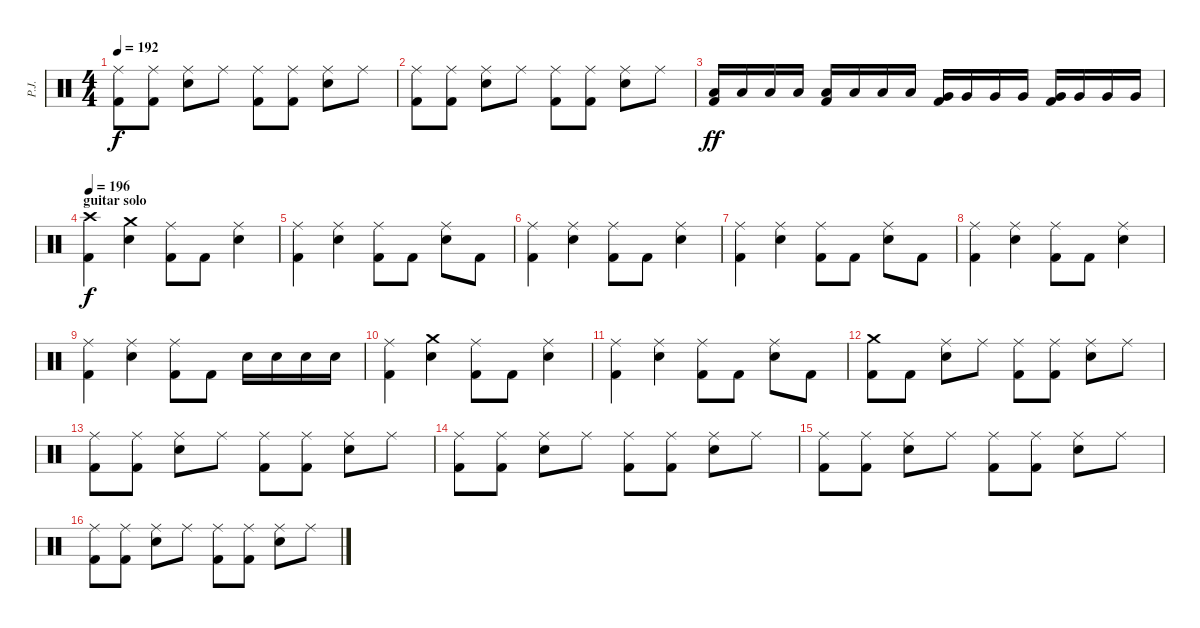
\track ("P.J." "P.J.") {instrument percussion}
\staff {score}
\articulation defaults
\ts (4 4)
\tempo 192
\clef neutral
\ks c
("Ride (middle)" "Kick (hit) 2").8{dy f} ("Ride (middle)" "Kick (hit) 2").8 ("Ride (middle)" "Snare (hit) 2").8 "Ride (middle)".8 ("Ride (middle)" "Kick (hit) 2").8 ("Ride (middle)" "Kick (hit) 2").8 ("Ride (middle)" "Snare (hit) 2").8 "Ride (middle)".8 |
("Ride (middle)" "Kick (hit) 2").8 ("Ride (middle)" "Kick (hit) 2").8 ("Ride (middle)" "Snare (hit) 2").8 "Ride (middle)".8 ("Ride (middle)" "Kick (hit) 2").8 ("Ride (middle)" "Kick (hit) 2").8 ("Ride (middle)" "Snare (hit) 2").8 "Ride (middle)".8 |
("Low Tom (hit)" "Kick (hit) 2").16{dy ff} "Low Tom (hit)".16 "Low Tom (hit)".16 "Low Tom (hit)".16 ("Low Tom (hit)" "Kick (hit) 2").16 "Low Tom (hit)".16 "Low Tom (hit)".16 "Low Tom (hit)".16 ("Very Low Tom (hit)" "Kick (hit) 2").16 "Very Low Tom (hit)".16 "Very Low Tom (hit)".16 "Very Low Tom (hit)".16 ("Very Low Tom (hit)" "Kick (hit) 2").16 "Very Low Tom (hit)".16 "Very Low Tom (hit)".16 "Very Low Tom (hit)".16 |
\section ("" "guitar solo")
\tempo 196
("Crash high (hit)" "Kick (hit) 2").4{dy f} ("Crash medium (hit)" "Snare (hit) 2").4 ("Ride (middle)" "Kick (hit) 2").8 "Kick (hit) 2".8 ("Ride (middle)" "Snare (hit) 2").4 |
("Ride (middle)" "Kick (hit) 2").4 ("Ride (middle)" "Snare (hit) 2").4 ("Ride (middle)" "Kick (hit) 2").8 "Kick (hit) 2".8 ("Ride (middle)" "Snare (hit) 2").8 "Kick (hit) 2".8 |
("Ride (middle)" "Kick (hit) 2").4 ("Ride (middle)" "Snare (hit) 2").4 ("Ride (middle)" "Kick (hit) 2").8 "Kick (hit) 2".8 ("Ride (middle)" "Snare (hit) 2").4 |
("Ride (middle)" "Kick (hit) 2").4 ("Ride (middle)" "Snare (hit) 2").4 ("Ride (middle)" "Kick (hit) 2").8 "Kick (hit) 2".8 ("Ride (middle)" "Snare (hit) 2").8 "Kick (hit) 2".8 |
("Ride (middle)" "Kick (hit) 2").4 ("Ride (middle)" "Snare (hit) 2").4 ("Ride (middle)" "Kick (hit) 2").8 "Kick (hit) 2".8 ("Ride (middle)" "Snare (hit) 2").4 |
("Ride (middle)" "Kick (hit) 2").4 ("Ride (middle)" "Snare (hit) 2").4 ("Ride (middle)" "Kick (hit) 2").8 "Kick (hit) 2".8 "Snare (hit) 2".16 "Snare (hit) 2".16 "Snare (hit) 2".16 "Snare (hit) 2".16 |
("Ride (middle)" "Kick (hit) 2").4 ("Crash medium (hit)" "Snare (hit) 2").4 ("Ride (middle)" "Kick (hit) 2").8 "Kick (hit) 2".8 ("Ride (middle)" "Snare (hit) 2").4 |
("Ride (middle)" "Kick (hit) 2").4 ("Ride (middle)" "Snare (hit) 2").4 ("Ride (middle)" "Kick (hit) 2").8 "Kick (hit) 2".8 ("Ride (middle)" "Snare (hit) 2").8 "Kick (hit) 2".8 |
("Crash medium (hit)" "Kick (hit) 2").8 "Kick (hit) 2".8 ("Ride (middle)" "Snare (hit) 2").8 "Ride (middle)".8 ("Ride (middle)" "Kick (hit) 2").8 ("Ride (middle)" "Kick (hit) 2").8 ("Ride (middle)" "Snare (hit) 2").8 "Ride (middle)".8 |
("Ride (middle)" "Kick (hit) 2").8 ("Ride (middle)" "Kick (hit) 2").8 ("Ride (middle)" "Snare (hit) 2").8 "Ride (middle)".8 ("Ride (middle)" "Kick (hit) 2").8 ("Ride (middle)" "Kick (hit) 2").8 ("Ride (middle)" "Snare (hit) 2").8 "Ride (middle)".8 |
("Ride (middle)" "Kick (hit) 2").8 ("Ride (middle)" "Kick (hit) 2").8 ("Ride (middle)" "Snare (hit) 2").8 "Ride (middle)".8 ("Ride (middle)" "Kick (hit) 2").8 ("Ride (middle)" "Kick (hit) 2").8 ("Ride (middle)" "Snare (hit) 2").8 "Ride (middle)".8 |
("Ride (middle)" "Kick (hit) 2").8 ("Ride (middle)" "Kick (hit) 2").8 ("Ride (middle)" "Snare (hit) 2").8 "Ride (middle)".8 ("Ride (middle)" "Kick (hit) 2").8 ("Ride (middle)" "Kick (hit) 2").8 ("Ride (middle)" "Snare (hit) 2").8 "Ride (middle)".8 |
("Ride (middle)" "Kick (hit) 2").8 ("Ride (middle)" "Kick (hit) 2").8 ("Ride (middle)" "Snare (hit) 2").8 "Ride (middle)".8 ("Ride (middle)" "Kick (hit) 2").8 ("Ride (middle)" "Kick (hit) 2").8 ("Ride (middle)" "Snare (hit) 2").8 "Ride (middle)".8
